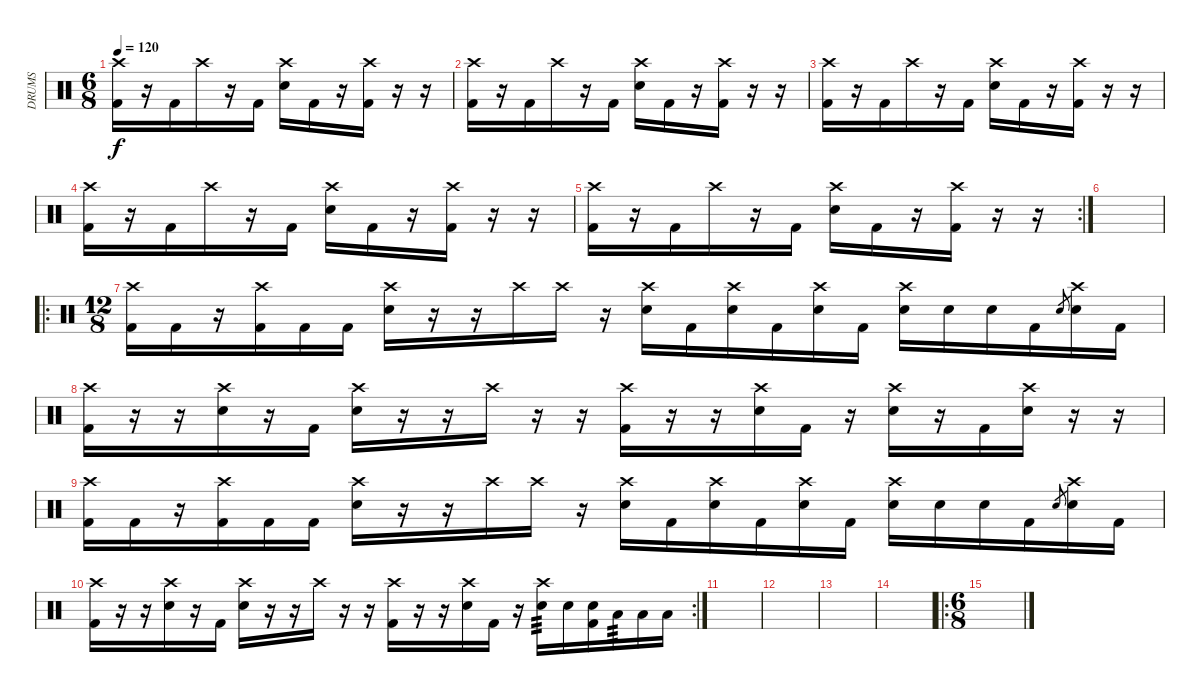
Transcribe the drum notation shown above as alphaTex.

\track ("DRUMS" "DRUMS") {mute instrument percussion}
\staff {score}
\articulation defaults
\ts (6 8)
\tempo 120
\clef neutral
\ks c
("Crash high (hit)" "Kick (hit) 2").16{dy f} r.16 "Kick (hit) 2".16 "Crash high (hit)".16 r.16 "Kick (hit) 2".16 ("Crash high (hit)" "Electric Snare (hit)").16 "Kick (hit) 2".16 r.16 ("Crash high (hit)" "Kick (hit) 2").16 r.16 r.16 |
("Crash high (hit)" "Kick (hit) 2").16 r.16 "Kick (hit) 2".16 "Crash high (hit)".16 r.16 "Kick (hit) 2".16 ("Crash high (hit)" "Electric Snare (hit)").16 "Kick (hit) 2".16 r.16 ("Crash high (hit)" "Kick (hit) 2").16 r.16 r.16 |
("Crash high (hit)" "Kick (hit) 2").16 r.16 "Kick (hit) 2".16 "Crash high (hit)".16 r.16 "Kick (hit) 2".16 ("Crash high (hit)" "Electric Snare (hit)").16 "Kick (hit) 2".16 r.16 ("Crash high (hit)" "Kick (hit) 2").16 r.16 r.16 |
("Crash high (hit)" "Kick (hit) 2").16 r.16 "Kick (hit) 2".16 "Crash high (hit)".16 r.16 "Kick (hit) 2".16 ("Crash high (hit)" "Electric Snare (hit)").16 "Kick (hit) 2".16 r.16 ("Crash high (hit)" "Kick (hit) 2").16 r.16 r.16 |
\rc 2
("Crash high (hit)" "Kick (hit) 2").16 r.16 "Kick (hit) 2".16 "Crash high (hit)".16 r.16 "Kick (hit) 2".16 ("Crash high (hit)" "Electric Snare (hit)").16 "Kick (hit) 2".16 r.16 ("Crash high (hit)" "Kick (hit) 2").16 r.16 r.16 |
|
\ro
\ts (12 8)
("Crash high (hit)" "Kick (hit) 2").16 "Kick (hit) 2".16 r.16 ("Crash high (hit)" "Kick (hit) 2").16 "Kick (hit) 2".16 "Kick (hit) 2".16 ("Crash high (hit)" "Electric Snare (hit)").16 r.16 r.16 "Crash high (hit)".16 "Crash high (hit)".16 r.16 ("Crash high (hit)" "Electric Snare (hit)").16 "Kick (hit) 2".16 ("Crash high (hit)" "Electric Snare (hit)").16 "Kick (hit) 2".16 ("Crash high (hit)" "Electric Snare (hit)").16 "Kick (hit) 2".16 ("Crash high (hit)" "Electric Snare (hit)").16 "Electric Snare (hit)".16 "Electric Snare (hit)".16 "Kick (hit) 2".16 "Electric Snare (hit)"{h}.8{gr} ("Crash high (hit)" "Electric Snare (hit)").16 "Kick (hit) 2".16 |
("Crash high (hit)" "Kick (hit) 2").16 r.16 r.16 ("Crash high (hit)" "Electric Snare (hit)").16 r.16 "Kick (hit) 2".16 ("Crash high (hit)" "Electric Snare (hit)").16 r.16 r.16 "Crash high (hit)".16 r.16 r.16 ("Crash high (hit)" "Kick (hit) 2").16 r.16 r.16 ("Crash high (hit)" "Electric Snare (hit)").16 "Kick (hit) 2".16 r.16 ("Crash high (hit)" "Electric Snare (hit)").16 r.16 "Kick (hit) 2".16 ("Crash high (hit)" "Electric Snare (hit)").16 r.16 r.16 |
("Crash high (hit)" "Kick (hit) 2").16 "Kick (hit) 2".16 r.16 ("Crash high (hit)" "Kick (hit) 2").16 "Kick (hit) 2".16 "Kick (hit) 2".16 ("Crash high (hit)" "Electric Snare (hit)").16 r.16 r.16 "Crash high (hit)".16 "Crash high (hit)".16 r.16 ("Crash high (hit)" "Electric Snare (hit)").16 "Kick (hit) 2".16 ("Crash high (hit)" "Electric Snare (hit)").16 "Kick (hit) 2".16 ("Crash high (hit)" "Electric Snare (hit)").16 "Kick (hit) 2".16 ("Crash high (hit)" "Electric Snare (hit)").16 "Electric Snare (hit)".16 "Electric Snare (hit)".16 "Kick (hit) 2".16 "Electric Snare (hit)"{h}.8{gr} ("Crash high (hit)" "Electric Snare (hit)").16 "Kick (hit) 2".16 |
\rc 2
("Crash high (hit)" "Kick (hit) 2").16 r.16 r.16 ("Crash high (hit)" "Electric Snare (hit)").16 r.16 "Kick (hit) 2".16 ("Crash high (hit)" "Electric Snare (hit)").16 r.16 r.16 "Crash high (hit)".16 r.16 r.16 ("Crash high (hit)" "Kick (hit) 2").16 r.16 r.16 ("Crash high (hit)" "Electric Snare (hit)").16 "Kick (hit) 2".16 r.16 ("Crash high (hit)" "Electric Snare (hit)").16{tp 3} "Electric Snare (hit)".16 ("Electric Snare (hit)" "Kick (hit) 2").16 "Low Tom (hit)".16{tp 3} "Low Tom (hit)".16 "Low Tom (hit)".16 |
|
|
|
|
\ro
\ts (6 8)
